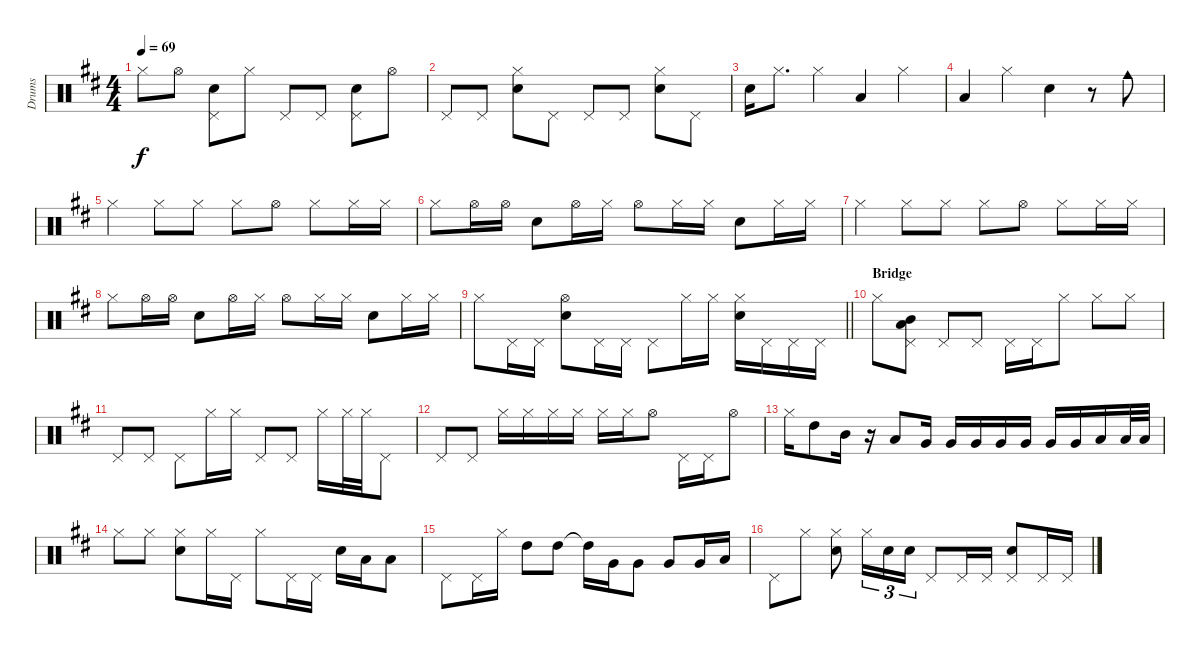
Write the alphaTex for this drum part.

\track ("Drums" "Drums") {instrument percussion}
\staff {score}
\articulation defaults
\ts (4 4)
\tempo 69
\clef neutral
\ks d "Hi-Hat (closed)".8{dy f} "Hi-Hat (open)".8
("Pedal Hi-Hat (hit)" "Snare (hit) 2").8 "Hi-Hat (closed)".8 "Pedal Hi-Hat (hit)".8 "Pedal Hi-Hat (hit)".8 ("Pedal Hi-Hat (hit)" "Snare (hit) 2").8 "Hi-Hat (open)".8 |
"Pedal Hi-Hat (hit)".8 "Pedal Hi-Hat (hit)".8 ("Hi-Hat (closed)" "Snare (hit) 2").8 "Pedal Hi-Hat (hit)".8 "Pedal Hi-Hat (hit)".8 "Pedal Hi-Hat (hit)".8 ("Hi-Hat (closed)" "Snare (hit) 2").8 "Pedal Hi-Hat (hit)".8 |
"Snare (hit) 2".16 "Hi-Hat (closed)".8{d} "Hi-Hat (closed)".4 "Low Tom (hit)".4 "Hi-Hat (closed)".4 |
"Low Tom (hit)".4 "Hi-Hat (closed)".4 "Snare (hit) 2".4 r.8 "Cowbell medium (hit)".8 |
"Hi-Hat (closed)".4 "Hi-Hat (closed)".8 "Hi-Hat (closed)".8 "Hi-Hat (closed)".8 "Hi-Hat (open)".8 "Hi-Hat (closed)".8 "Hi-Hat (closed)".16 "Hi-Hat (closed)".16 |
"Hi-Hat (closed)".8 "Hi-Hat (open)".16 "Hi-Hat (open)".16 "Snare (hit) 2".8 "Hi-Hat (open)".16 "Hi-Hat (closed)".16 "Hi-Hat (open)".8 "Hi-Hat (closed)".16 "Hi-Hat (closed)".16 "Snare (hit) 2".8 "Hi-Hat (closed)".16 "Hi-Hat (closed)".16 |
"Hi-Hat (closed)".4 "Hi-Hat (closed)".8 "Hi-Hat (closed)".8 "Hi-Hat (closed)".8 "Hi-Hat (open)".8 "Hi-Hat (closed)".8 "Hi-Hat (closed)".16 "Hi-Hat (closed)".16 |
"Hi-Hat (closed)".8 "Hi-Hat (open)".16 "Hi-Hat (open)".16 "Snare (hit) 2".8 "Hi-Hat (open)".16 "Hi-Hat (closed)".16 "Hi-Hat (open)".8 "Hi-Hat (closed)".16 "Hi-Hat (closed)".16 "Snare (hit) 2".8 "Hi-Hat (closed)".16 "Hi-Hat (closed)".16 |
\barLineRight lightlight "Hi-Hat (closed)".8 "Pedal Hi-Hat (hit)".16 "Pedal Hi-Hat (hit)".16
("Hi-Hat (open)" "Snare (hit) 2").8 "Pedal Hi-Hat (hit)".16 "Pedal Hi-Hat (hit)".16 "Pedal Hi-Hat (hit)".8 "Hi-Hat (closed)".16 "Hi-Hat (closed)".16 ("Hi-Hat (closed)" "Snare (hit) 2").16 "Pedal Hi-Hat (hit)".16 "Pedal Hi-Hat (hit)".16 "Pedal Hi-Hat (hit)".16 |
\section ("" "Bridge")
"Hi-Hat (closed)".8 ("Pedal Hi-Hat (hit)" "Low Tom (hit)" "Mid Tom (hit)").8 "Pedal Hi-Hat (hit)".8 "Pedal Hi-Hat (hit)".8 "Pedal Hi-Hat (hit)".16 "Pedal Hi-Hat (hit)".16 "Hi-Hat (closed)".8 "Hi-Hat (closed)".8 "Hi-Hat (closed)".8 |
"Pedal Hi-Hat (hit)".8 "Pedal Hi-Hat (hit)".8 "Pedal Hi-Hat (hit)".8 "Hi-Hat (closed)".16 "Hi-Hat (closed)".16 "Pedal Hi-Hat (hit)".8 "Pedal Hi-Hat (hit)".8 "Hi-Hat (closed)".16 "Hi-Hat (closed)".32 "Hi-Hat (closed)".32 "Pedal Hi-Hat (hit)".8 |
"Pedal Hi-Hat (hit)".8 "Pedal Hi-Hat (hit)".8 "Hi-Hat (closed)".16 "Hi-Hat (closed)".16 "Hi-Hat (closed)".16 "Hi-Hat (closed)".16 "Hi-Hat (closed)".16 "Hi-Hat (closed)".16 "Hi-Hat (open)".8 "Pedal Hi-Hat (hit)".16 "Pedal Hi-Hat (hit)".16 "Hi-Hat (open)".8 |
"Hi-Hat (closed)".16 "High Tom (hit)".8 "Mid Tom (hit)".16 r.16 "Low Tom (hit)".8 "Very Low Tom (hit)".16 "Very Low Tom (hit)".16 "Very Low Tom (hit)".16 "Very Low Tom (hit)".16 "Very Low Tom (hit)".16 "Very Low Tom (hit)".16 "Very Low Tom (hit)".16 "Low Floor Tom (hit)".16 "Low Floor Tom (hit)".32 "Low Floor Tom (hit)".32 |
"Hi-Hat (closed)".8 "Hi-Hat (closed)".8 ("Hi-Hat (closed)" "Snare (hit) 2").8 "Hi-Hat (closed)".16 "Pedal Hi-Hat (hit)".16 "Hi-Hat (closed)".8 "Pedal Hi-Hat (hit)".16 "Pedal Hi-Hat (hit)".16 "Snare (hit) 2".16 "Low Tom (hit)".16 "Low Tom (hit)".8 |
"Pedal Hi-Hat (hit)".8 "Pedal Hi-Hat (hit)".16 "Hi-Hat (closed)".16 "High Tom (hit)".8 "High Tom (hit)".8 "High Tom (hit)"{t}.16 "Very Low Tom (hit)".16 "Very Low Tom (hit)".8 "Very Low Tom (hit)".8 "Very Low Tom (hit)".16 "Low Floor Tom (hit)".16 |
"Pedal Hi-Hat (hit)".8 "Hi-Hat (closed)".8 ("Hi-Hat (closed)" "Snare (hit) 2").8 "Hi-Hat (closed)".16{tu (3 2)} "Snare (hit) 2".16{tu (3 2)} "Snare (hit) 2".16{tu (3 2)} "Pedal Hi-Hat (hit)".8 "Pedal Hi-Hat (hit)".16 "Pedal Hi-Hat (hit)".16 ("Pedal Hi-Hat (hit)" "Snare (hit) 2").8 "Pedal Hi-Hat (hit)".16 "Pedal Hi-Hat (hit)".16
